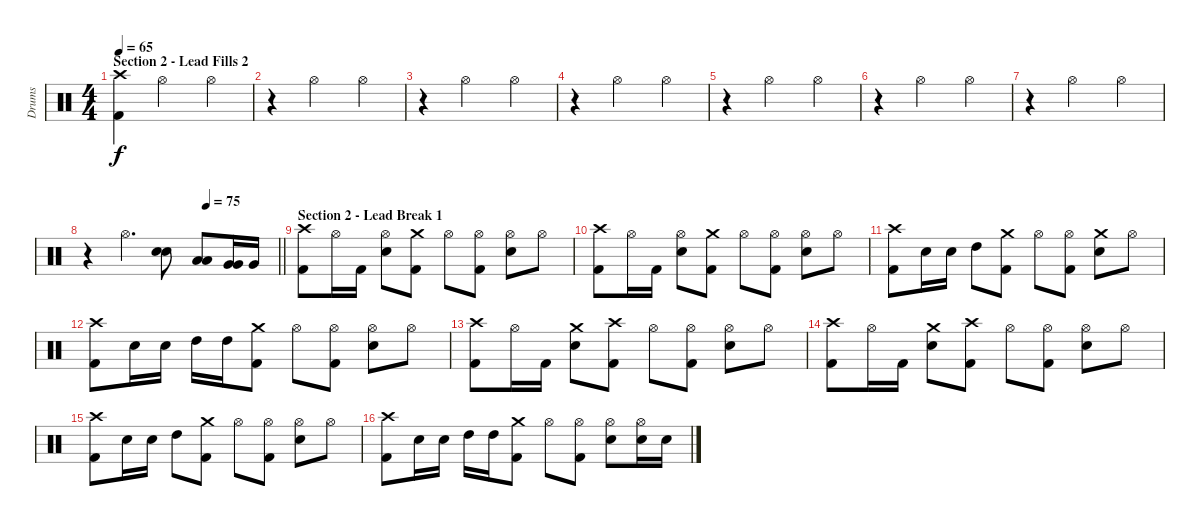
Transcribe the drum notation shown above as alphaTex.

\track ("Drums" "Drums") {instrument percussion}
\staff {score}
\articulation defaults
\ts (4 4)
\section ("" "Section 2 - Lead Fills 2")
\tempo 65
\clef neutral
\ks c
("Crash high (hit)" "Kick (hit) 2").4{dy f} "Hi-Hat (open)".2 "Hi-Hat (open)".4 |
r.4 "Hi-Hat (open)".2 "Hi-Hat (open)".4 |
r.4 "Hi-Hat (open)".2 "Hi-Hat (open)".4 |
r.4 "Hi-Hat (open)".2 "Hi-Hat (open)".4 |
r.4 "Hi-Hat (open)".2 "Hi-Hat (open)".4 |
r.4 "Hi-Hat (open)".2 "Hi-Hat (open)".4 |
r.4 "Hi-Hat (open)".2 "Hi-Hat (open)".4 |
\tempo (75 0.625)
\barLineRight lightlight
r.4 "Hi-Hat (open)".4{d} ("Electric Snare (hit)" "Electric Snare (hit)").8{bu 60} ("Low Tom (hit)" "Low Tom (hit)").8{bu 60} ("Very Low Tom (hit)" "Very Low Tom (hit)").16{bu 60} "Very Low Tom (hit)".16 |
\section ("" "Section 2 - Lead Break 1")
("Crash high (hit)" "Kick (hit) 2").8 "Hi-Hat (open)".16 "Kick (hit) 2".16 ("Hi-Hat (open)" "Electric Snare (hit)").8 ("Crash medium (hit)" "Kick (hit) 2").8 "Hi-Hat (open)".8 ("Hi-Hat (open)" "Kick (hit) 2").8 ("Hi-Hat (open)" "Electric Snare (hit)").8 "Hi-Hat (open)".8 |
("Crash high (hit)" "Kick (hit) 2").8 "Hi-Hat (open)".16 "Kick (hit) 2".16 ("Hi-Hat (open)" "Electric Snare (hit)").8 ("Crash medium (hit)" "Kick (hit) 2").8 "Hi-Hat (open)".8 ("Hi-Hat (open)" "Kick (hit) 2").8 ("Hi-Hat (open)" "Electric Snare (hit)").8 "Hi-Hat (open)".8 |
("Crash high (hit)" "Kick (hit) 2").8 "Electric Snare (hit)".16 "Electric Snare (hit)".16 "High Tom (hit)".8 ("Crash medium (hit)" "Kick (hit) 2").8 "Hi-Hat (open)".8 ("Hi-Hat (open)" "Kick (hit) 2").8 ("Crash medium (hit)" "Electric Snare (hit)").8 "Hi-Hat (open)".8 |
("Crash high (hit)" "Kick (hit) 2").8 "Electric Snare (hit)".16 "Electric Snare (hit)".16 "High Tom (hit)".16 "High Tom (hit)".16 ("Crash medium (hit)" "Kick (hit) 2").8 "Hi-Hat (open)".8 ("Hi-Hat (open)" "Kick (hit) 2").8 ("Hi-Hat (open)" "Electric Snare (hit)").8 "Hi-Hat (open)".8 |
("Crash high (hit)" "Kick (hit) 2").8 "Hi-Hat (open)".16 "Kick (hit) 2".16 ("Crash medium (hit)" "Electric Snare (hit)").8 ("Crash high (hit)" "Kick (hit) 2").8 "Hi-Hat (open)".8 ("Hi-Hat (open)" "Kick (hit) 2").8 ("Hi-Hat (open)" "Electric Snare (hit)").8 "Hi-Hat (open)".8 |
("Crash high (hit)" "Kick (hit) 2").8 "Hi-Hat (open)".16 "Kick (hit) 2".16 ("Crash medium (hit)" "Electric Snare (hit)").8 ("Crash high (hit)" "Kick (hit) 2").8 "Hi-Hat (open)".8 ("Hi-Hat (open)" "Kick (hit) 2").8 ("Hi-Hat (open)" "Electric Snare (hit)").8 "Hi-Hat (open)".8 |
("Crash high (hit)" "Kick (hit) 2").8 "Electric Snare (hit)".16 "Electric Snare (hit)".16 "High Tom (hit)".8 ("Crash medium (hit)" "Kick (hit) 2").8 "Hi-Hat (open)".8 ("Hi-Hat (open)" "Kick (hit) 2").8 ("Hi-Hat (open)" "Electric Snare (hit)").8 "Hi-Hat (open)".8 |
("Crash high (hit)" "Kick (hit) 2").8 "Electric Snare (hit)".16 "Electric Snare (hit)".16 "High Tom (hit)".16 "High Tom (hit)".16 ("Crash medium (hit)" "Kick (hit) 2").8 "Hi-Hat (open)".8 ("Hi-Hat (open)" "Kick (hit) 2").8 ("Hi-Hat (open)" "Electric Snare (hit)").8 ("Hi-Hat (open)" "Electric Snare (hit)").16 "Electric Snare (hit)".16
